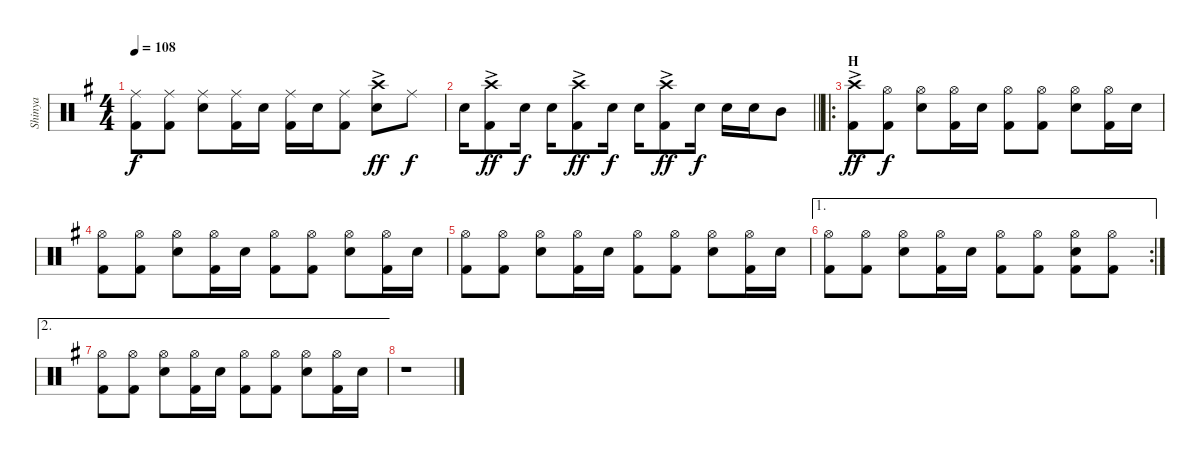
\track ("Shinya" "Shinya") {instrument percussion}
\staff {score}
\articulation defaults
\ts (4 4)
\tempo 108
\clef neutral
\ks eminor
("Ride (middle)" "Kick (hit) 2").8{dy f} ("Ride (middle)" "Kick (hit) 2").8 ("Ride (middle)" "Snare (hit) 2").8 ("Ride (middle)" "Kick (hit) 2").16 "Snare (hit) 2".16 ("Ride (middle)" "Kick (hit) 2").16 "Snare (hit) 2".16 ("Ride (middle)" "Kick (hit) 2").8 ("Crash high (hit)"{ac} "Snare (hit) 2").8{dy ff} "Ride (middle)".8{dy f} |
\barLineRight lightlight "Snare (hit) 2".16
("Crash high (hit)"{ac} "Kick (hit) 2").8{dy ff} "Snare (hit) 2".16{dy f} "Snare (hit) 2".16 ("Crash high (hit)"{ac} "Kick (hit) 2").8{dy ff} "Snare (hit) 2".16{dy f} "Snare (hit) 2".16 ("Crash high (hit)"{ac} "Kick (hit) 2").8{dy ff} "Snare (hit) 2".16{dy f} "Snare (hit) 2".16 "Snare (hit) 2".16 "Mid Tom (hit)".8 |
\ro
\section ("" "H")
("Crash high (hit)"{ac} "Kick (hit) 2").8{dy ff} ("Hi-Hat (open)" "Kick (hit) 2").8{dy f} ("Hi-Hat (open)" "Snare (hit) 2").8 ("Hi-Hat (open)" "Kick (hit) 2").16 "Snare (hit) 2".16 ("Hi-Hat (open)" "Kick (hit) 2").8 ("Hi-Hat (open)" "Kick (hit) 2").8 ("Hi-Hat (open)" "Snare (hit) 2").8 ("Hi-Hat (open)" "Kick (hit) 2").16 "Snare (hit) 2".16 |
("Hi-Hat (open)" "Kick (hit) 2").8 ("Hi-Hat (open)" "Kick (hit) 2").8 ("Hi-Hat (open)" "Snare (hit) 2").8 ("Hi-Hat (open)" "Kick (hit) 2").16 "Snare (hit) 2".16 ("Hi-Hat (open)" "Kick (hit) 2").8 ("Hi-Hat (open)" "Kick (hit) 2").8 ("Hi-Hat (open)" "Snare (hit) 2").8 ("Hi-Hat (open)" "Kick (hit) 2").16 "Snare (hit) 2".16 |
("Hi-Hat (open)" "Kick (hit) 2").8 ("Hi-Hat (open)" "Kick (hit) 2").8 ("Hi-Hat (open)" "Snare (hit) 2").8 ("Hi-Hat (open)" "Kick (hit) 2").16 "Snare (hit) 2".16 ("Hi-Hat (open)" "Kick (hit) 2").8 ("Hi-Hat (open)" "Kick (hit) 2").8 ("Hi-Hat (open)" "Snare (hit) 2").8 ("Hi-Hat (open)" "Kick (hit) 2").16 "Snare (hit) 2".16 |
\ae 1
\rc 2
("Hi-Hat (open)" "Kick (hit) 2").8 ("Hi-Hat (open)" "Kick (hit) 2").8 ("Hi-Hat (open)" "Snare (hit) 2").8 ("Hi-Hat (open)" "Kick (hit) 2").16 "Snare (hit) 2".16 ("Hi-Hat (open)" "Kick (hit) 2").8 ("Hi-Hat (open)" "Kick (hit) 2").8 ("Hi-Hat (open)" "Snare (hit) 2" "Kick (hit) 2").8 ("Hi-Hat (open)" "Kick (hit) 2").8 |
\ae 2
("Hi-Hat (open)" "Kick (hit) 2").8 ("Hi-Hat (open)" "Kick (hit) 2").8 ("Hi-Hat (open)" "Snare (hit) 2").8 ("Hi-Hat (open)" "Kick (hit) 2").16 "Snare (hit) 2".16 ("Hi-Hat (open)" "Kick (hit) 2").8 ("Hi-Hat (open)" "Kick (hit) 2").8 ("Hi-Hat (open)" "Snare (hit) 2").8 ("Hi-Hat (open)" "Kick (hit) 2").16 "Snare (hit) 2".16 |
r.1
